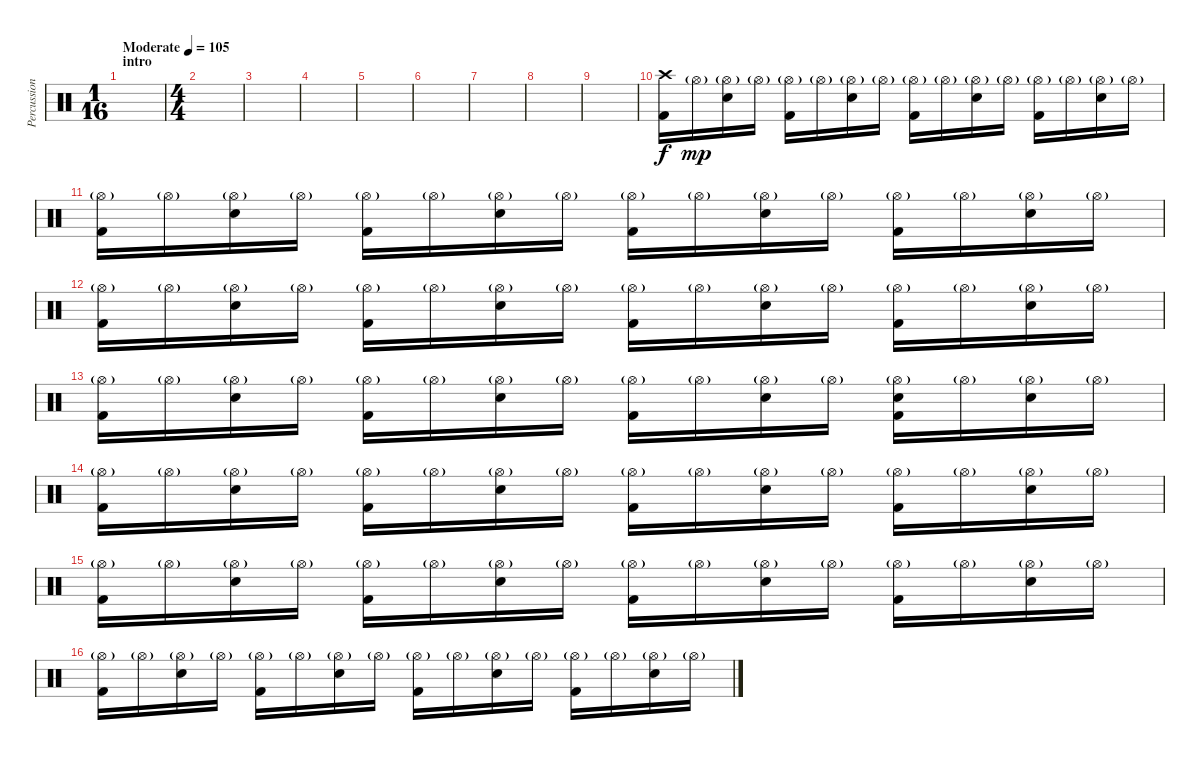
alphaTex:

\track ("Percussion" "Percussion") {instrument percussion}
\staff {score}
\articulation defaults
\ts (1 16)
\section ("" "intro")
\tempo (105 "Moderate")
\clef neutral
\ks c
|
\ts (4 4)
|
|
|
|
|
|
|
|
("Crash high (hit)" "Kick (hit) 2").16 "Hi-Hat (open)"{g}.16{dy mp} ("Hi-Hat (open)"{g} "Electric Snare (hit)").16 "Hi-Hat (open)"{g}.16 ("Hi-Hat (open)"{g} "Kick (hit) 2").16 "Hi-Hat (open)"{g}.16 ("Hi-Hat (open)"{g} "Electric Snare (hit)").16 "Hi-Hat (open)"{g}.16 ("Hi-Hat (open)"{g} "Kick (hit) 2").16 "Hi-Hat (open)"{g}.16 ("Hi-Hat (open)"{g} "Electric Snare (hit)").16 "Hi-Hat (open)"{g}.16 ("Hi-Hat (open)"{g} "Kick (hit) 2").16 "Hi-Hat (open)"{g}.16 ("Hi-Hat (open)"{g} "Electric Snare (hit)").16 "Hi-Hat (open)"{g}.16 |
("Hi-Hat (open)"{g} "Kick (hit) 2").16 "Hi-Hat (open)"{g}.16 ("Hi-Hat (open)"{g} "Electric Snare (hit)").16 "Hi-Hat (open)"{g}.16 ("Hi-Hat (open)"{g} "Kick (hit) 2").16 "Hi-Hat (open)"{g}.16 ("Hi-Hat (open)"{g} "Electric Snare (hit)").16 "Hi-Hat (open)"{g}.16 ("Hi-Hat (open)"{g} "Kick (hit) 2").16 "Hi-Hat (open)"{g}.16 ("Hi-Hat (open)"{g} "Electric Snare (hit)").16 "Hi-Hat (open)"{g}.16 ("Hi-Hat (open)"{g} "Kick (hit) 2").16 "Hi-Hat (open)"{g}.16 ("Hi-Hat (open)"{g} "Electric Snare (hit)").16 "Hi-Hat (open)"{g}.16 |
("Hi-Hat (open)"{g} "Kick (hit) 2").16 "Hi-Hat (open)"{g}.16 ("Hi-Hat (open)"{g} "Electric Snare (hit)").16 "Hi-Hat (open)"{g}.16 ("Hi-Hat (open)"{g} "Kick (hit) 2").16 "Hi-Hat (open)"{g}.16 ("Hi-Hat (open)"{g} "Electric Snare (hit)").16 "Hi-Hat (open)"{g}.16 ("Hi-Hat (open)"{g} "Kick (hit) 2").16 "Hi-Hat (open)"{g}.16 ("Hi-Hat (open)"{g} "Electric Snare (hit)").16 "Hi-Hat (open)"{g}.16 ("Hi-Hat (open)"{g} "Kick (hit) 2").16 "Hi-Hat (open)"{g}.16 ("Hi-Hat (open)"{g} "Electric Snare (hit)").16 "Hi-Hat (open)"{g}.16 |
("Hi-Hat (open)"{g} "Kick (hit) 2").16 "Hi-Hat (open)"{g}.16 ("Hi-Hat (open)"{g} "Electric Snare (hit)").16 "Hi-Hat (open)"{g}.16 ("Hi-Hat (open)"{g} "Kick (hit) 2").16 "Hi-Hat (open)"{g}.16 ("Hi-Hat (open)"{g} "Electric Snare (hit)").16 "Hi-Hat (open)"{g}.16 ("Hi-Hat (open)"{g} "Kick (hit) 2").16 "Hi-Hat (open)"{g}.16 ("Hi-Hat (open)"{g} "Electric Snare (hit)").16 "Hi-Hat (open)"{g}.16 ("Hi-Hat (open)"{g} "Electric Snare (hit)" "Kick (hit) 2").16 "Hi-Hat (open)"{g}.16 ("Hi-Hat (open)"{g} "Electric Snare (hit)").16 "Hi-Hat (open)"{g}.16 |
("Hi-Hat (open)"{g} "Kick (hit) 2").16 "Hi-Hat (open)"{g}.16 ("Hi-Hat (open)"{g} "Electric Snare (hit)").16 "Hi-Hat (open)"{g}.16 ("Hi-Hat (open)"{g} "Kick (hit) 2").16 "Hi-Hat (open)"{g}.16 ("Hi-Hat (open)"{g} "Electric Snare (hit)").16 "Hi-Hat (open)"{g}.16 ("Hi-Hat (open)"{g} "Kick (hit) 2").16 "Hi-Hat (open)"{g}.16 ("Hi-Hat (open)"{g} "Electric Snare (hit)").16 "Hi-Hat (open)"{g}.16 ("Hi-Hat (open)"{g} "Kick (hit) 2").16 "Hi-Hat (open)"{g}.16 ("Hi-Hat (open)"{g} "Electric Snare (hit)").16 "Hi-Hat (open)"{g}.16 |
("Hi-Hat (open)"{g} "Kick (hit) 2").16 "Hi-Hat (open)"{g}.16 ("Hi-Hat (open)"{g} "Electric Snare (hit)").16 "Hi-Hat (open)"{g}.16 ("Hi-Hat (open)"{g} "Kick (hit) 2").16 "Hi-Hat (open)"{g}.16 ("Hi-Hat (open)"{g} "Electric Snare (hit)").16 "Hi-Hat (open)"{g}.16 ("Hi-Hat (open)"{g} "Kick (hit) 2").16 "Hi-Hat (open)"{g}.16 ("Hi-Hat (open)"{g} "Electric Snare (hit)").16 "Hi-Hat (open)"{g}.16 ("Hi-Hat (open)"{g} "Kick (hit) 2").16 "Hi-Hat (open)"{g}.16 ("Hi-Hat (open)"{g} "Electric Snare (hit)").16 "Hi-Hat (open)"{g}.16 |
("Hi-Hat (open)"{g} "Kick (hit) 2").16 "Hi-Hat (open)"{g}.16 ("Hi-Hat (open)"{g} "Electric Snare (hit)").16 "Hi-Hat (open)"{g}.16 ("Hi-Hat (open)"{g} "Kick (hit) 2").16 "Hi-Hat (open)"{g}.16 ("Hi-Hat (open)"{g} "Electric Snare (hit)").16 "Hi-Hat (open)"{g}.16 ("Hi-Hat (open)"{g} "Kick (hit) 2").16 "Hi-Hat (open)"{g}.16 ("Hi-Hat (open)"{g} "Electric Snare (hit)").16 "Hi-Hat (open)"{g}.16 ("Hi-Hat (open)"{g} "Kick (hit) 2").16 "Hi-Hat (open)"{g}.16 ("Hi-Hat (open)"{g} "Electric Snare (hit)").16 "Hi-Hat (open)"{g}.16
